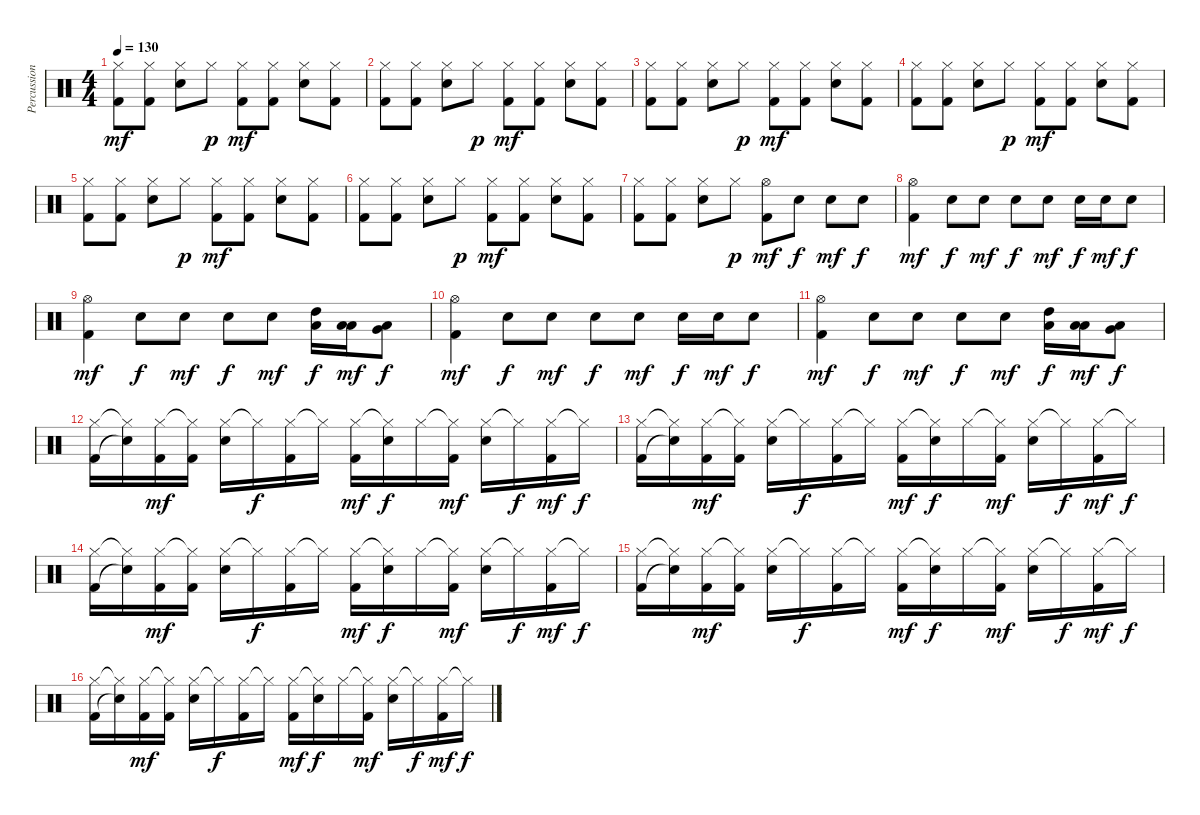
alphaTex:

\track ("Percussion" "Percussion") {instrument percussion}
\staff {score}
\articulation defaults
\ts (4 4)
\tempo 130
\clef neutral
\ks c
("Hi-Hat (closed)" "Kick (hit) 2").8{dy mf} ("Hi-Hat (closed)" "Kick (hit) 2").8 ("Hi-Hat (closed)" "Snare (hit) 2").8 "Hi-Hat (closed)".8{dy p} ("Hi-Hat (closed)" "Kick (hit) 2").8{dy mf} ("Hi-Hat (closed)" "Kick (hit) 2").8 ("Hi-Hat (closed)" "Snare (hit) 2").8 ("Hi-Hat (closed)" "Kick (hit) 2").8 |
("Hi-Hat (closed)" "Kick (hit) 2").8 ("Hi-Hat (closed)" "Kick (hit) 2").8 ("Hi-Hat (closed)" "Snare (hit) 2").8 "Hi-Hat (closed)".8{dy p} ("Hi-Hat (closed)" "Kick (hit) 2").8{dy mf} ("Hi-Hat (closed)" "Kick (hit) 2").8 ("Hi-Hat (closed)" "Snare (hit) 2").8 ("Hi-Hat (closed)" "Kick (hit) 2").8 |
("Hi-Hat (closed)" "Kick (hit) 2").8 ("Hi-Hat (closed)" "Kick (hit) 2").8 ("Hi-Hat (closed)" "Snare (hit) 2").8 "Hi-Hat (closed)".8{dy p} ("Hi-Hat (closed)" "Kick (hit) 2").8{dy mf} ("Hi-Hat (closed)" "Kick (hit) 2").8 ("Hi-Hat (closed)" "Snare (hit) 2").8 ("Hi-Hat (closed)" "Kick (hit) 2").8 |
("Hi-Hat (closed)" "Kick (hit) 2").8 ("Hi-Hat (closed)" "Kick (hit) 2").8 ("Hi-Hat (closed)" "Snare (hit) 2").8 "Hi-Hat (closed)".8{dy p} ("Hi-Hat (closed)" "Kick (hit) 2").8{dy mf} ("Hi-Hat (closed)" "Kick (hit) 2").8 ("Hi-Hat (closed)" "Snare (hit) 2").8 ("Hi-Hat (closed)" "Kick (hit) 2").8 |
("Hi-Hat (closed)" "Kick (hit) 2").8 ("Hi-Hat (closed)" "Kick (hit) 2").8 ("Hi-Hat (closed)" "Snare (hit) 2").8 "Hi-Hat (closed)".8{dy p} ("Hi-Hat (closed)" "Kick (hit) 2").8{dy mf} ("Hi-Hat (closed)" "Kick (hit) 2").8 ("Hi-Hat (closed)" "Snare (hit) 2").8 ("Hi-Hat (closed)" "Kick (hit) 2").8 |
("Hi-Hat (closed)" "Kick (hit) 2").8 ("Hi-Hat (closed)" "Kick (hit) 2").8 ("Hi-Hat (closed)" "Snare (hit) 2").8 "Hi-Hat (closed)".8{dy p} ("Hi-Hat (closed)" "Kick (hit) 2").8{dy mf} ("Hi-Hat (closed)" "Kick (hit) 2").8 ("Hi-Hat (closed)" "Snare (hit) 2").8 ("Hi-Hat (closed)" "Kick (hit) 2").8 |
("Hi-Hat (closed)" "Kick (hit) 2").8 ("Hi-Hat (closed)" "Kick (hit) 2").8 ("Hi-Hat (closed)" "Snare (hit) 2").8 "Hi-Hat (closed)".8{dy p} ("Hi-Hat (open)" "Kick (hit) 2").8{dy mf} "Snare (hit) 2".8{dy f} "Snare (hit) 2".8{dy mf} "Snare (hit) 2".8{dy f} |
("Hi-Hat (open)" "Kick (hit) 2").4{dy mf} "Snare (hit) 2".8{dy f} "Snare (hit) 2".8{dy mf} "Snare (hit) 2".8{dy f} "Snare (hit) 2".8{dy mf} "Snare (hit) 2".16{dy f} "Snare (hit) 2".16{dy mf} "Snare (hit) 2".8{dy f} |
("Hi-Hat (open)" "Kick (hit) 2").4{dy mf} "Snare (hit) 2".8{dy f} "Snare (hit) 2".8{dy mf} "Snare (hit) 2".8{dy f} "Snare (hit) 2".8{dy mf} ("High Tom (hit)" "Low Floor Tom (hit)").16{dy f} ("Low Tom (hit)" "Low Floor Tom (hit)").16{dy mf} ("Very Low Tom (hit)" "Low Floor Tom (hit)").8{dy f} |
("Hi-Hat (open)" "Kick (hit) 2").4{dy mf} "Snare (hit) 2".8{dy f} "Snare (hit) 2".8{dy mf} "Snare (hit) 2".8{dy f} "Snare (hit) 2".8{dy mf} "Snare (hit) 2".16{dy f} "Snare (hit) 2".16{dy mf} "Snare (hit) 2".8{dy f} |
("Hi-Hat (open)" "Kick (hit) 2").4{dy mf} "Snare (hit) 2".8{dy f} "Snare (hit) 2".8{dy mf} "Snare (hit) 2".8{dy f} "Snare (hit) 2".8{dy mf} ("High Tom (hit)" "Low Floor Tom (hit)").16{dy f} ("Low Tom (hit)" "Low Floor Tom (hit)").16{dy mf} ("Very Low Tom (hit)" "Low Floor Tom (hit)").8{dy f} |
("Hi-Hat (closed)" "Kick (hit) 2").16 ("Hi-Hat (closed)"{t} "Snare (hit)"{t}).16 ("Hi-Hat (closed)" "Kick (hit) 2").16{dy mf} ("Hi-Hat (closed)"{t} "Kick (hit) 2").16 ("Hi-Hat (closed)" "Snare (hit) 2").16 "Hi-Hat (closed)"{t}.16{dy f} ("Hi-Hat (closed)" "Kick (hit) 2").16 "Hi-Hat (closed)"{t}.16 ("Hi-Hat (closed)" "Kick (hit) 2").16{dy mf} ("Hi-Hat (closed)"{t} "Snare (hit) 2").16{dy f} "Hi-Hat (closed)".16 ("Hi-Hat (closed)"{t} "Kick (hit) 2").16{dy mf} ("Hi-Hat (closed)" "Snare (hit) 2").16 "Hi-Hat (closed)"{t}.16{dy f} ("Hi-Hat (closed)" "Kick (hit) 2").16{dy mf} "Hi-Hat (closed)"{t}.16{dy f} |
("Hi-Hat (closed)" "Kick (hit) 2").16 ("Hi-Hat (closed)"{t} "Snare (hit)"{t}).16 ("Hi-Hat (closed)" "Kick (hit) 2").16{dy mf} ("Hi-Hat (closed)"{t} "Kick (hit) 2").16 ("Hi-Hat (closed)" "Snare (hit) 2").16 "Hi-Hat (closed)"{t}.16{dy f} ("Hi-Hat (closed)" "Kick (hit) 2").16 "Hi-Hat (closed)"{t}.16 ("Hi-Hat (closed)" "Kick (hit) 2").16{dy mf} ("Hi-Hat (closed)"{t} "Snare (hit) 2").16{dy f} "Hi-Hat (closed)".16 ("Hi-Hat (closed)"{t} "Kick (hit) 2").16{dy mf} ("Hi-Hat (closed)" "Snare (hit) 2").16 "Hi-Hat (closed)"{t}.16{dy f} ("Hi-Hat (closed)" "Kick (hit) 2").16{dy mf} "Hi-Hat (closed)"{t}.16{dy f} |
("Hi-Hat (closed)" "Kick (hit) 2").16 ("Hi-Hat (closed)"{t} "Snare (hit)"{t}).16 ("Hi-Hat (closed)" "Kick (hit) 2").16{dy mf} ("Hi-Hat (closed)"{t} "Kick (hit) 2").16 ("Hi-Hat (closed)" "Snare (hit) 2").16 "Hi-Hat (closed)"{t}.16{dy f} ("Hi-Hat (closed)" "Kick (hit) 2").16 "Hi-Hat (closed)"{t}.16 ("Hi-Hat (closed)" "Kick (hit) 2").16{dy mf} ("Hi-Hat (closed)"{t} "Snare (hit) 2").16{dy f} "Hi-Hat (closed)".16 ("Hi-Hat (closed)"{t} "Kick (hit) 2").16{dy mf} ("Hi-Hat (closed)" "Snare (hit) 2").16 "Hi-Hat (closed)"{t}.16{dy f} ("Hi-Hat (closed)" "Kick (hit) 2").16{dy mf} "Hi-Hat (closed)"{t}.16{dy f} |
("Hi-Hat (closed)" "Kick (hit) 2").16 ("Hi-Hat (closed)"{t} "Snare (hit)"{t}).16 ("Hi-Hat (closed)" "Kick (hit) 2").16{dy mf} ("Hi-Hat (closed)"{t} "Kick (hit) 2").16 ("Hi-Hat (closed)" "Snare (hit) 2").16 "Hi-Hat (closed)"{t}.16{dy f} ("Hi-Hat (closed)" "Kick (hit) 2").16 "Hi-Hat (closed)"{t}.16 ("Hi-Hat (closed)" "Kick (hit) 2").16{dy mf} ("Hi-Hat (closed)"{t} "Snare (hit) 2").16{dy f} "Hi-Hat (closed)".16 ("Hi-Hat (closed)"{t} "Kick (hit) 2").16{dy mf} ("Hi-Hat (closed)" "Snare (hit) 2").16 "Hi-Hat (closed)"{t}.16{dy f} ("Hi-Hat (closed)" "Kick (hit) 2").16{dy mf} "Hi-Hat (closed)"{t}.16{dy f} |
("Hi-Hat (closed)" "Kick (hit) 2").16 ("Hi-Hat (closed)"{t} "Snare (hit)"{t}).16 ("Hi-Hat (closed)" "Kick (hit) 2").16{dy mf} ("Hi-Hat (closed)"{t} "Kick (hit) 2").16 ("Hi-Hat (closed)" "Snare (hit) 2").16 "Hi-Hat (closed)"{t}.16{dy f} ("Hi-Hat (closed)" "Kick (hit) 2").16 "Hi-Hat (closed)"{t}.16 ("Hi-Hat (closed)" "Kick (hit) 2").16{dy mf} ("Hi-Hat (closed)"{t} "Snare (hit) 2").16{dy f} "Hi-Hat (closed)".16 ("Hi-Hat (closed)"{t} "Kick (hit) 2").16{dy mf} ("Hi-Hat (closed)" "Snare (hit) 2").16 "Hi-Hat (closed)"{t}.16{dy f} ("Hi-Hat (closed)" "Kick (hit) 2").16{dy mf} "Hi-Hat (closed)"{t}.16{dy f}
